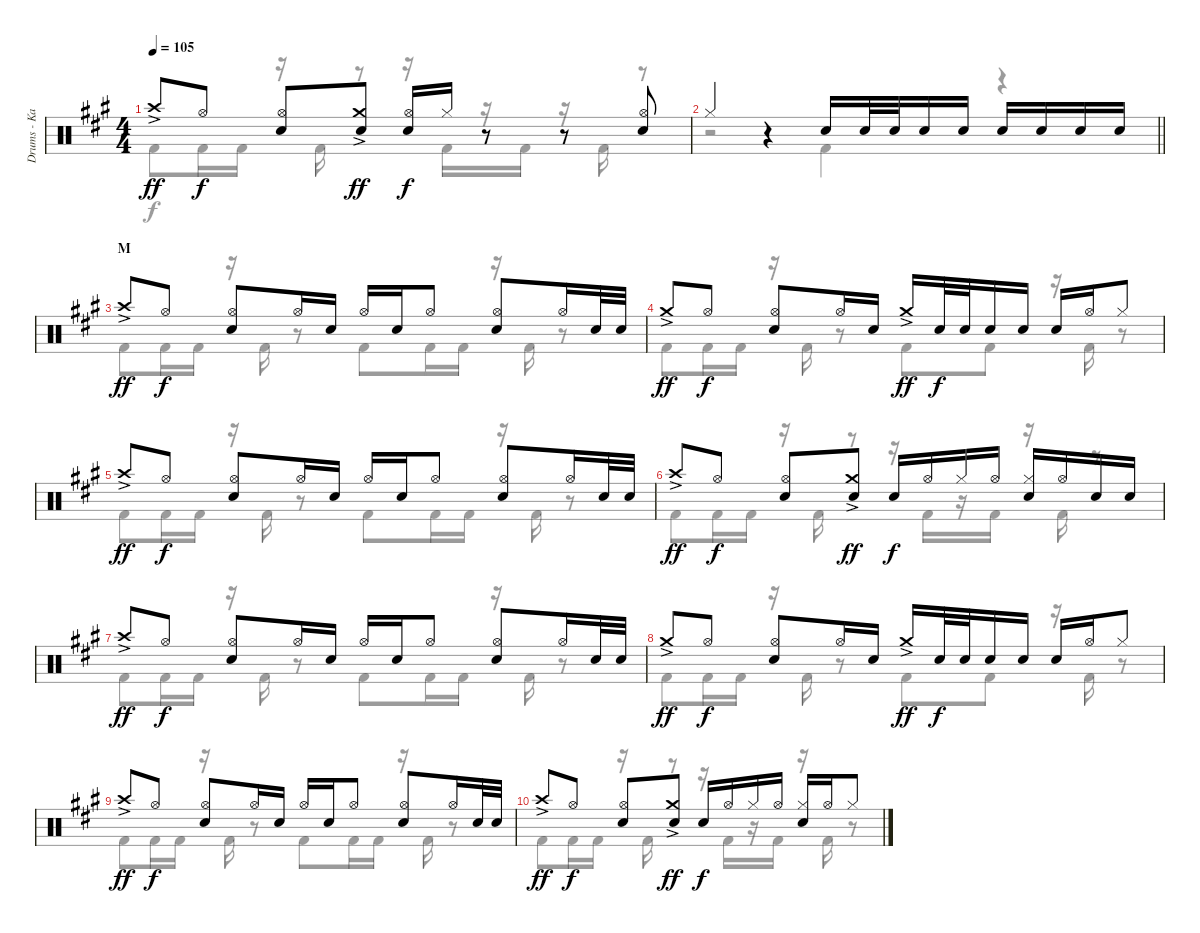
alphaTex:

\track ("Drums - Kai" "Drums - Ka") {instrument percussion}
\staff {score}
\articulation defaults
\voice
\ts (4 4)
\tempo 105
\clef neutral
\ks a "Crash high (hit)"{ac}.8{dy ff} "Hi-Hat (open)".8{dy f}
("Hi-Hat (open)" "Electric Snare (hit)").8 ("Crash medium (hit)"{ac} "Electric Snare (hit)").8{dy ff} ("Hi-Hat (open)" "Electric Snare (hit)").16{dy f} "Hi-Hat (closed)".16 r.8 r.8 ("Hi-Hat (open)" "Electric Snare (hit)").8 |
\barLineRight lightlight "Hi-Hat (closed)".4
r.4 "Electric Snare (hit)".16 "Electric Snare (hit)".32 "Electric Snare (hit)".32 "Electric Snare (hit)".16 "Electric Snare (hit)".16 "Electric Snare (hit)".16 "Electric Snare (hit)".16 "Electric Snare (hit)".16 "Electric Snare (hit)".16 |
\section ("" "M")
"Crash high (hit)"{ac}.8{dy ff} "Hi-Hat (open)".8{dy f} ("Hi-Hat (open)" "Electric Snare (hit)").8 "Hi-Hat (open)".16 "Electric Snare (hit)".16 "Hi-Hat (open)".16 "Electric Snare (hit)".16 "Hi-Hat (open)".8 ("Hi-Hat (open)" "Electric Snare (hit)").8 "Hi-Hat (open)".16 "Electric Snare (hit)".32 "Electric Snare (hit)".32 |
"Crash medium (hit)"{ac}.8{dy ff} "Hi-Hat (open)".8{dy f} ("Hi-Hat (open)" "Electric Snare (hit)").8 "Hi-Hat (open)".16 "Electric Snare (hit)".16 "Crash medium (hit)"{ac}.16{dy ff} "Electric Snare (hit)".32{dy f} "Electric Snare (hit)".32 "Electric Snare (hit)".16 "Electric Snare (hit)".16 "Electric Snare (hit)".16 "Hi-Hat (open)".16 "Hi-Hat (closed)".8 |
"Crash high (hit)"{ac}.8{dy ff} "Hi-Hat (open)".8{dy f} ("Hi-Hat (open)" "Electric Snare (hit)").8 "Hi-Hat (open)".16 "Electric Snare (hit)".16 "Hi-Hat (open)".16 "Electric Snare (hit)".16 "Hi-Hat (open)".8 ("Hi-Hat (open)" "Electric Snare (hit)").8 "Hi-Hat (open)".16 "Electric Snare (hit)".32 "Electric Snare (hit)".32 |
"Crash high (hit)"{ac}.8{dy ff} "Hi-Hat (open)".8{dy f} ("Hi-Hat (open)" "Electric Snare (hit)").8 ("Crash medium (hit)"{ac} "Electric Snare (hit)").8{dy ff} "Electric Snare (hit)".16{dy f} "Hi-Hat (open)".16 "Hi-Hat (closed)".16 "Hi-Hat (open)".16 ("Hi-Hat (closed)" "Electric Snare (hit)").16 "Hi-Hat (open)".16 "Electric Snare (hit)".16 "Electric Snare (hit)".16 |
"Crash high (hit)"{ac}.8{dy ff} "Hi-Hat (open)".8{dy f} ("Hi-Hat (open)" "Electric Snare (hit)").8 "Hi-Hat (open)".16 "Electric Snare (hit)".16 "Hi-Hat (open)".16 "Electric Snare (hit)".16 "Hi-Hat (open)".8 ("Hi-Hat (open)" "Electric Snare (hit)").8 "Hi-Hat (open)".16 "Electric Snare (hit)".32 "Electric Snare (hit)".32 |
"Crash medium (hit)"{ac}.8{dy ff} "Hi-Hat (open)".8{dy f} ("Hi-Hat (open)" "Electric Snare (hit)").8 "Hi-Hat (open)".16 "Electric Snare (hit)".16 "Crash medium (hit)"{ac}.16{dy ff} "Electric Snare (hit)".32{dy f} "Electric Snare (hit)".32 "Electric Snare (hit)".16 "Electric Snare (hit)".16 "Electric Snare (hit)".16 "Hi-Hat (open)".16 "Hi-Hat (closed)".8 |
"Crash high (hit)"{ac}.8{dy ff} "Hi-Hat (open)".8{dy f} ("Hi-Hat (open)" "Electric Snare (hit)").8 "Hi-Hat (open)".16 "Electric Snare (hit)".16 "Hi-Hat (open)".16 "Electric Snare (hit)".16 "Hi-Hat (open)".8 ("Hi-Hat (open)" "Electric Snare (hit)").8 "Hi-Hat (open)".16 "Electric Snare (hit)".32 "Electric Snare (hit)".32 |
"Crash high (hit)"{ac}.8{dy ff} "Hi-Hat (open)".8{dy f} ("Hi-Hat (open)" "Electric Snare (hit)").8 ("Crash medium (hit)"{ac} "Electric Snare (hit)").8{dy ff} "Electric Snare (hit)".16{dy f} "Hi-Hat (open)".16 "Hi-Hat (closed)".16 "Hi-Hat (open)".16 ("Hi-Hat (closed)" "Electric Snare (hit)").16 "Hi-Hat (open)".16 "Hi-Hat (closed)".8
\voice
\clef neutral
\ottava regular
\simile none
\ks a "Kick (hit) 2".8{dy f} "Kick (hit) 2".16 "Kick (hit) 2".16
r.16 "Kick (hit) 2".16 r.8 r.16 "Kick (hit) 2".16 r.16 "Kick (hit) 2".16 r.16 "Kick (hit) 2".16 r.8 |
\barLineRight lightlight
r.2 "Kick (hit) 2".4 r.4 |
"Kick (hit) 2".8 "Kick (hit) 2".16 "Kick (hit) 2".16 r.16 "Kick (hit) 2".16 r.8 "Kick (hit) 2".8 "Kick (hit) 2".16 "Kick (hit) 2".16 r.16 "Kick (hit) 2".16 r.8 |
"Kick (hit) 2".8 "Kick (hit) 2".16 "Kick (hit) 2".16 r.16 "Kick (hit) 2".16 r.8 "Kick (hit) 2".8 "Kick (hit) 2".8 r.16 "Kick (hit) 2".16 r.8 |
"Kick (hit) 2".8 "Kick (hit) 2".16 "Kick (hit) 2".16 r.16 "Kick (hit) 2".16 r.8 "Kick (hit) 2".8 "Kick (hit) 2".16 "Kick (hit) 2".16 r.16 "Kick (hit) 2".16 r.8 |
"Kick (hit) 2".8 "Kick (hit) 2".16 "Kick (hit) 2".16 r.16 "Kick (hit) 2".16 r.8 r.16 "Kick (hit) 2".16 r.16 "Kick (hit) 2".16 r.16 "Kick (hit) 2".16 r.8 |
"Kick (hit) 2".8 "Kick (hit) 2".16 "Kick (hit) 2".16 r.16 "Kick (hit) 2".16 r.8 "Kick (hit) 2".8 "Kick (hit) 2".16 "Kick (hit) 2".16 r.16 "Kick (hit) 2".16 r.8 |
"Kick (hit) 2".8 "Kick (hit) 2".16 "Kick (hit) 2".16 r.16 "Kick (hit) 2".16 r.8 "Kick (hit) 2".8 "Kick (hit) 2".8 r.16 "Kick (hit) 2".16 r.8 |
"Kick (hit) 2".8 "Kick (hit) 2".16 "Kick (hit) 2".16 r.16 "Kick (hit) 2".16 r.8 "Kick (hit) 2".8 "Kick (hit) 2".16 "Kick (hit) 2".16 r.16 "Kick (hit) 2".16 r.8 |
"Kick (hit) 2".8 "Kick (hit) 2".16 "Kick (hit) 2".16 r.16 "Kick (hit) 2".16 r.8 r.16 "Kick (hit) 2".16 r.16 "Kick (hit) 2".16 r.16 "Kick (hit) 2".16 r.8
